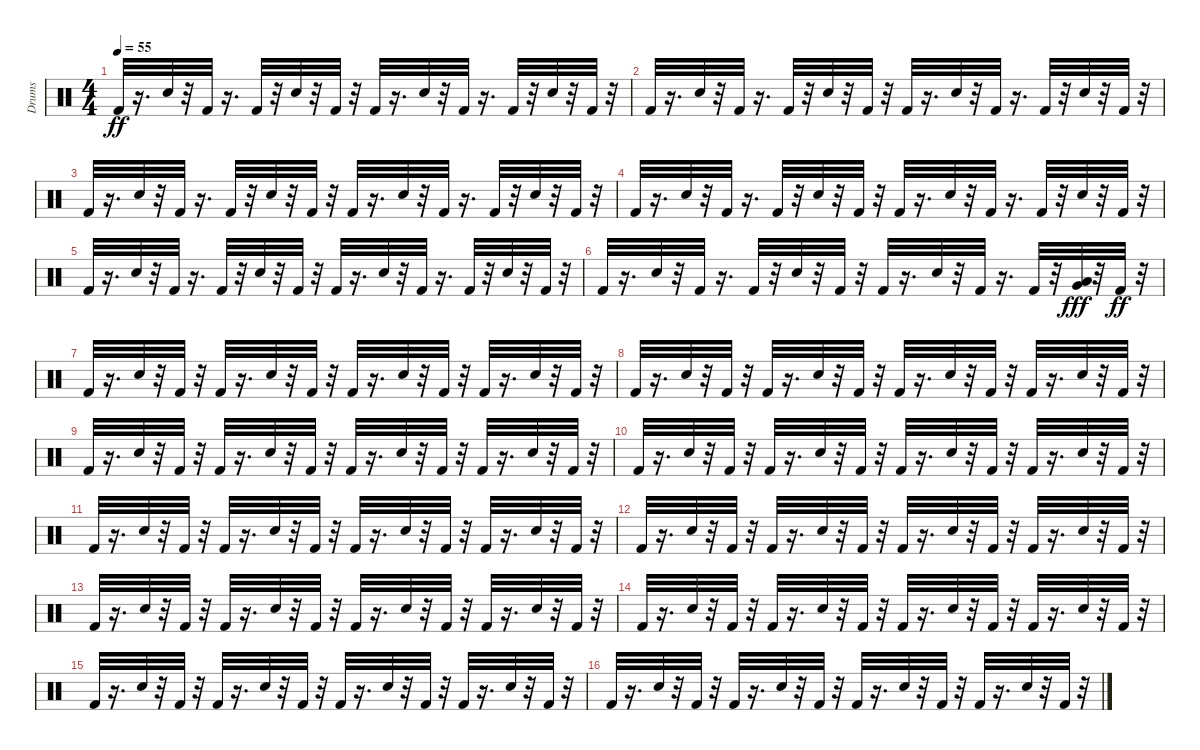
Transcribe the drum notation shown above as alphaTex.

\track ("Drums               " "Drums     ") {instrument percussion}
\staff {score}
\articulation defaults
\ts (4 4)
\tempo 55
\clef neutral
\ks c "Kick (hit) 2".32{dy ff}
r.16{d} "Snare (hit) 2".32 r.32 "Kick (hit) 2".32 r.16{d} "Kick (hit) 2".32 r.32 "Snare (hit) 2".32 r.32 "Kick (hit) 2".32 r.32 "Kick (hit) 2".32 r.16{d} "Snare (hit) 2".32 r.32 "Kick (hit) 2".32 r.16{d} "Kick (hit) 2".32 r.32 "Snare (hit) 2".32 r.32 "Kick (hit) 2".32 r.32 |
"Kick (hit) 2".32 r.16{d} "Snare (hit) 2".32 r.32 "Kick (hit) 2".32 r.16{d} "Kick (hit) 2".32 r.32 "Snare (hit) 2".32 r.32 "Kick (hit) 2".32 r.32 "Kick (hit) 2".32 r.16{d} "Snare (hit) 2".32 r.32 "Kick (hit) 2".32 r.16{d} "Kick (hit) 2".32 r.32 "Snare (hit) 2".32 r.32 "Kick (hit) 2".32 r.32 |
"Kick (hit) 2".32 r.16{d} "Snare (hit) 2".32 r.32 "Kick (hit) 2".32 r.16{d} "Kick (hit) 2".32 r.32 "Snare (hit) 2".32 r.32 "Kick (hit) 2".32 r.32 "Kick (hit) 2".32 r.16{d} "Snare (hit) 2".32 r.32 "Kick (hit) 2".32 r.16{d} "Kick (hit) 2".32 r.32 "Snare (hit) 2".32 r.32 "Kick (hit) 2".32 r.32 |
"Kick (hit) 2".32 r.16{d} "Snare (hit) 2".32 r.32 "Kick (hit) 2".32 r.16{d} "Kick (hit) 2".32 r.32 "Snare (hit) 2".32 r.32 "Kick (hit) 2".32 r.32 "Kick (hit) 2".32 r.16{d} "Snare (hit) 2".32 r.32 "Kick (hit) 2".32 r.16{d} "Kick (hit) 2".32 r.32 "Snare (hit) 2".32 r.32 "Kick (hit) 2".32 r.32 |
"Kick (hit) 2".32 r.16{d} "Snare (hit) 2".32 r.32 "Kick (hit) 2".32 r.16{d} "Kick (hit) 2".32 r.32 "Snare (hit) 2".32 r.32 "Kick (hit) 2".32 r.32 "Kick (hit) 2".32 r.16{d} "Snare (hit) 2".32 r.32 "Kick (hit) 2".32 r.16{d} "Kick (hit) 2".32 r.32 "Snare (hit) 2".32 r.32 "Kick (hit) 2".32 r.32 |
"Kick (hit) 2".32 r.16{d} "Snare (hit) 2".32 r.32 "Kick (hit) 2".32 r.16{d} "Kick (hit) 2".32 r.32 "Snare (hit) 2".32 r.32 "Kick (hit) 2".32 r.32 "Kick (hit) 2".32 r.16{d} "Snare (hit) 2".32 r.32 "Kick (hit) 2".32 r.16{d} "Kick (hit) 2".32 r.32 ("Very Low Tom (hit)" "Low Floor Tom (hit)").32{dy fff} r.32 "Kick (hit) 2".32{dy ff} r.32 |
"Kick (hit) 2".32 r.16{d} "Snare (hit) 2".32 r.32 "Kick (hit) 2".32 r.32 "Kick (hit) 2".32 r.16{d} "Snare (hit) 2".32 r.32 "Kick (hit) 2".32 r.32 "Kick (hit) 2".32 r.16{d} "Snare (hit) 2".32 r.32 "Kick (hit) 2".32 r.32 "Kick (hit) 2".32 r.16{d} "Snare (hit) 2".32 r.32 "Kick (hit) 2".32 r.32 |
"Kick (hit) 2".32 r.16{d} "Snare (hit) 2".32 r.32 "Kick (hit) 2".32 r.32 "Kick (hit) 2".32 r.16{d} "Snare (hit) 2".32 r.32 "Kick (hit) 2".32 r.32 "Kick (hit) 2".32 r.16{d} "Snare (hit) 2".32 r.32 "Kick (hit) 2".32 r.32 "Kick (hit) 2".32 r.16{d} "Snare (hit) 2".32 r.32 "Kick (hit) 2".32 r.32 |
"Kick (hit) 2".32 r.16{d} "Snare (hit) 2".32 r.32 "Kick (hit) 2".32 r.32 "Kick (hit) 2".32 r.16{d} "Snare (hit) 2".32 r.32 "Kick (hit) 2".32 r.32 "Kick (hit) 2".32 r.16{d} "Snare (hit) 2".32 r.32 "Kick (hit) 2".32 r.32 "Kick (hit) 2".32 r.16{d} "Snare (hit) 2".32 r.32 "Kick (hit) 2".32 r.32 |
"Kick (hit) 2".32 r.16{d} "Snare (hit) 2".32 r.32 "Kick (hit) 2".32 r.32 "Kick (hit) 2".32 r.16{d} "Snare (hit) 2".32 r.32 "Kick (hit) 2".32 r.32 "Kick (hit) 2".32 r.16{d} "Snare (hit) 2".32 r.32 "Kick (hit) 2".32 r.32 "Kick (hit) 2".32 r.16{d} "Snare (hit) 2".32 r.32 "Kick (hit) 2".32 r.32 |
"Kick (hit) 2".32 r.16{d} "Snare (hit) 2".32 r.32 "Kick (hit) 2".32 r.32 "Kick (hit) 2".32 r.16{d} "Snare (hit) 2".32 r.32 "Kick (hit) 2".32 r.32 "Kick (hit) 2".32 r.16{d} "Snare (hit) 2".32 r.32 "Kick (hit) 2".32 r.32 "Kick (hit) 2".32 r.16{d} "Snare (hit) 2".32 r.32 "Kick (hit) 2".32 r.32 |
"Kick (hit) 2".32 r.16{d} "Snare (hit) 2".32 r.32 "Kick (hit) 2".32 r.32 "Kick (hit) 2".32 r.16{d} "Snare (hit) 2".32 r.32 "Kick (hit) 2".32 r.32 "Kick (hit) 2".32 r.16{d} "Snare (hit) 2".32 r.32 "Kick (hit) 2".32 r.32 "Kick (hit) 2".32 r.16{d} "Snare (hit) 2".32 r.32 "Kick (hit) 2".32 r.32 |
"Kick (hit) 2".32 r.16{d} "Snare (hit) 2".32 r.32 "Kick (hit) 2".32 r.32 "Kick (hit) 2".32 r.16{d} "Snare (hit) 2".32 r.32 "Kick (hit) 2".32 r.32 "Kick (hit) 2".32 r.16{d} "Snare (hit) 2".32 r.32 "Kick (hit) 2".32 r.32 "Kick (hit) 2".32 r.16{d} "Snare (hit) 2".32 r.32 "Kick (hit) 2".32 r.32 |
"Kick (hit) 2".32 r.16{d} "Snare (hit) 2".32 r.32 "Kick (hit) 2".32 r.32 "Kick (hit) 2".32 r.16{d} "Snare (hit) 2".32 r.32 "Kick (hit) 2".32 r.32 "Kick (hit) 2".32 r.16{d} "Snare (hit) 2".32 r.32 "Kick (hit) 2".32 r.32 "Kick (hit) 2".32 r.16{d} "Snare (hit) 2".32 r.32 "Kick (hit) 2".32 r.32 |
"Kick (hit) 2".32 r.16{d} "Snare (hit) 2".32 r.32 "Kick (hit) 2".32 r.32 "Kick (hit) 2".32 r.16{d} "Snare (hit) 2".32 r.32 "Kick (hit) 2".32 r.32 "Kick (hit) 2".32 r.16{d} "Snare (hit) 2".32 r.32 "Kick (hit) 2".32 r.32 "Kick (hit) 2".32 r.16{d} "Snare (hit) 2".32 r.32 "Kick (hit) 2".32 r.32 |
"Kick (hit) 2".32 r.16{d} "Snare (hit) 2".32 r.32 "Kick (hit) 2".32 r.32 "Kick (hit) 2".32 r.16{d} "Snare (hit) 2".32 r.32 "Kick (hit) 2".32 r.32 "Kick (hit) 2".32 r.16{d} "Snare (hit) 2".32 r.32 "Kick (hit) 2".32 r.32 "Kick (hit) 2".32 r.16{d} "Snare (hit) 2".32 r.32 "Kick (hit) 2".32 r.32
